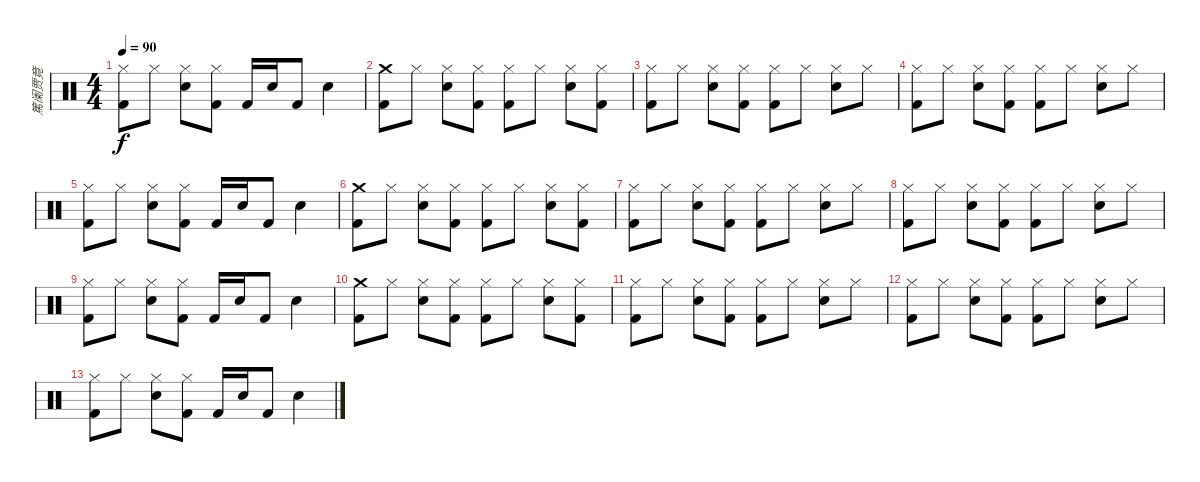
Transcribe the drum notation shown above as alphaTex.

\track ("篤阑贾竟" "篤阑贾竟") {instrument percussion}
\staff {score}
\articulation defaults
\ts (4 4)
\tempo 90
\clef neutral
\ks c
("Hi-Hat (closed)" "Kick (hit) 2").8{dy f} "Hi-Hat (closed)".8 ("Hi-Hat (closed)" "Snare (hit) 2").8 ("Hi-Hat (closed)" "Kick (hit) 2").8 "Kick (hit) 2".16 "Snare (hit) 2".16 "Kick (hit) 2".8 "Snare (hit) 2".4 |
("Crash medium (hit)" "Kick (hit) 2").8 "Hi-Hat (closed)".8 ("Hi-Hat (closed)" "Snare (hit) 2").8 ("Hi-Hat (closed)" "Kick (hit) 2").8 ("Hi-Hat (closed)" "Kick (hit) 2").8 "Hi-Hat (closed)".8 ("Hi-Hat (closed)" "Snare (hit) 2").8 ("Hi-Hat (closed)" "Kick (hit) 2").8 |
("Hi-Hat (closed)" "Kick (hit) 2").8 "Hi-Hat (closed)".8 ("Hi-Hat (closed)" "Snare (hit) 2").8 ("Hi-Hat (closed)" "Kick (hit) 2").8 ("Hi-Hat (closed)" "Kick (hit) 2").8 "Hi-Hat (closed)".8 ("Hi-Hat (closed)" "Snare (hit) 2").8 "Hi-Hat (closed)".8 |
("Hi-Hat (closed)" "Kick (hit) 2").8 "Hi-Hat (closed)".8 ("Hi-Hat (closed)" "Snare (hit) 2").8 ("Hi-Hat (closed)" "Kick (hit) 2").8 ("Hi-Hat (closed)" "Kick (hit) 2").8 "Hi-Hat (closed)".8 ("Hi-Hat (closed)" "Snare (hit) 2").8 "Hi-Hat (closed)".8 |
("Hi-Hat (closed)" "Kick (hit) 2").8 "Hi-Hat (closed)".8 ("Hi-Hat (closed)" "Snare (hit) 2").8 ("Hi-Hat (closed)" "Kick (hit) 2").8 "Kick (hit) 2".16 "Snare (hit) 2".16 "Kick (hit) 2".8 "Snare (hit) 2".4 |
("Crash medium (hit)" "Kick (hit) 2").8 "Hi-Hat (closed)".8 ("Hi-Hat (closed)" "Snare (hit) 2").8 ("Hi-Hat (closed)" "Kick (hit) 2").8 ("Hi-Hat (closed)" "Kick (hit) 2").8 "Hi-Hat (closed)".8 ("Hi-Hat (closed)" "Snare (hit) 2").8 ("Hi-Hat (closed)" "Kick (hit) 2").8 |
("Hi-Hat (closed)" "Kick (hit) 2").8 "Hi-Hat (closed)".8 ("Hi-Hat (closed)" "Snare (hit) 2").8 ("Hi-Hat (closed)" "Kick (hit) 2").8 ("Hi-Hat (closed)" "Kick (hit) 2").8 "Hi-Hat (closed)".8 ("Hi-Hat (closed)" "Snare (hit) 2").8 "Hi-Hat (closed)".8 |
("Hi-Hat (closed)" "Kick (hit) 2").8 "Hi-Hat (closed)".8 ("Hi-Hat (closed)" "Snare (hit) 2").8 ("Hi-Hat (closed)" "Kick (hit) 2").8 ("Hi-Hat (closed)" "Kick (hit) 2").8 "Hi-Hat (closed)".8 ("Hi-Hat (closed)" "Snare (hit) 2").8 "Hi-Hat (closed)".8 |
("Hi-Hat (closed)" "Kick (hit) 2").8 "Hi-Hat (closed)".8 ("Hi-Hat (closed)" "Snare (hit) 2").8 ("Hi-Hat (closed)" "Kick (hit) 2").8 "Kick (hit) 2".16 "Snare (hit) 2".16 "Kick (hit) 2".8 "Snare (hit) 2".4 |
("Crash medium (hit)" "Kick (hit) 2").8 "Hi-Hat (closed)".8 ("Hi-Hat (closed)" "Snare (hit) 2").8 ("Hi-Hat (closed)" "Kick (hit) 2").8 ("Hi-Hat (closed)" "Kick (hit) 2").8 "Hi-Hat (closed)".8 ("Hi-Hat (closed)" "Snare (hit) 2").8 ("Hi-Hat (closed)" "Kick (hit) 2").8 |
("Hi-Hat (closed)" "Kick (hit) 2").8 "Hi-Hat (closed)".8 ("Hi-Hat (closed)" "Snare (hit) 2").8 ("Hi-Hat (closed)" "Kick (hit) 2").8 ("Hi-Hat (closed)" "Kick (hit) 2").8 "Hi-Hat (closed)".8 ("Hi-Hat (closed)" "Snare (hit) 2").8 "Hi-Hat (closed)".8 |
("Hi-Hat (closed)" "Kick (hit) 2").8 "Hi-Hat (closed)".8 ("Hi-Hat (closed)" "Snare (hit) 2").8 ("Hi-Hat (closed)" "Kick (hit) 2").8 ("Hi-Hat (closed)" "Kick (hit) 2").8 "Hi-Hat (closed)".8 ("Hi-Hat (closed)" "Snare (hit) 2").8 "Hi-Hat (closed)".8 |
("Hi-Hat (closed)" "Kick (hit) 2").8 "Hi-Hat (closed)".8 ("Hi-Hat (closed)" "Snare (hit) 2").8 ("Hi-Hat (closed)" "Kick (hit) 2").8 "Kick (hit) 2".16 "Snare (hit) 2".16 "Kick (hit) 2".8 "Snare (hit) 2".4
